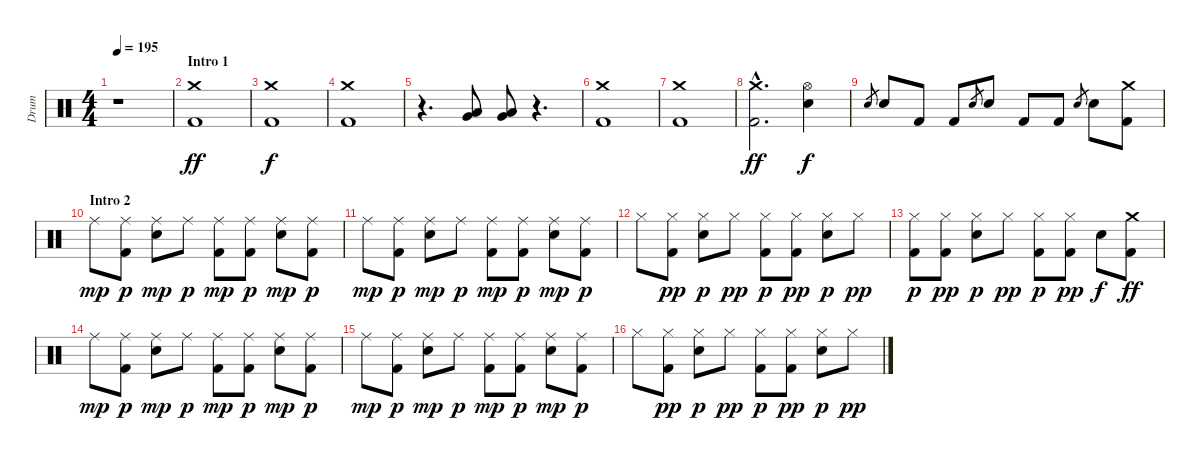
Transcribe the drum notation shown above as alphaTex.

\track ("Drum" "Drum") {instrument percussion}
\staff {score}
\articulation defaults
\ts (4 4)
\tempo 195
\clef neutral
\ks c
r.1{dy ff} |
\section ("" "Intro 1")
("Crash medium (hit)" "Kick (hit) 2").1 |
("Crash medium (hit)" "Kick (hit) 2").1{dy f} |
("Crash medium (hit)" "Kick (hit) 2").1 |
r.4{d} ("Very Low Tom (hit)" "Low Floor Tom (hit)").8 ("Very Low Tom (hit)" "Low Floor Tom (hit)").8 r.4{d} |
("Crash medium (hit)" "Kick (hit) 2").1 |
("Crash medium (hit)" "Kick (hit) 2").1 |
("Crash medium (hit)"{hac} "Kick (hit) 2"{hac}).2{d dy ff} ("Hi-Hat (open)" "Electric Snare (hit)").4{dy f} |
"Electric Snare (hit)".8{gr} "Electric Snare (hit)".8 "Kick (hit) 2".8 "Kick (hit) 2".8 "Electric Snare (hit)".8{gr} "Electric Snare (hit)".8 "Kick (hit) 2".8 "Kick (hit) 2".8 "Electric Snare (hit)".8{gr} "Electric Snare (hit)".8 ("Crash medium (hit)" "Kick (hit) 2").8 |
\section ("" "Intro 2")
"Ride (middle)".8{dy mp} ("Ride (middle)" "Kick (hit) 2").8{dy p} ("Ride (middle)" "Electric Snare (hit)").8{dy mp} "Ride (middle)".8{dy p} ("Ride (middle)" "Kick (hit) 2").8{dy mp} ("Ride (middle)" "Kick (hit) 2").8{dy p} ("Ride (middle)" "Electric Snare (hit)").8{dy mp} ("Ride (middle)" "Kick (hit) 2").8{dy p} |
"Ride (middle)".8{dy mp} ("Ride (middle)" "Kick (hit) 2").8{dy p} ("Ride (middle)" "Electric Snare (hit)").8{dy mp} "Ride (middle)".8{dy p} ("Ride (middle)" "Kick (hit) 2").8{dy mp} ("Ride (middle)" "Kick (hit) 2").8{dy p} ("Ride (middle)" "Electric Snare (hit)").8{dy mp} ("Ride (middle)" "Kick (hit) 2").8{dy p} |
"Hi-Hat (closed)".8 ("Hi-Hat (closed)" "Kick (hit) 2").8{dy pp} ("Hi-Hat (closed)" "Electric Snare (hit)").8{dy p} "Hi-Hat (closed)".8{dy pp} ("Hi-Hat (closed)" "Kick (hit) 2").8{dy p} ("Hi-Hat (closed)" "Kick (hit) 2").8{dy pp} ("Hi-Hat (closed)" "Electric Snare (hit)").8{dy p} "Hi-Hat (closed)".8{dy pp} |
("Hi-Hat (closed)" "Kick (hit) 2").8{dy p} ("Hi-Hat (closed)" "Kick (hit) 2").8{dy pp} ("Hi-Hat (closed)" "Electric Snare (hit)").8{dy p} "Hi-Hat (closed)".8{dy pp} ("Hi-Hat (closed)" "Kick (hit) 2").8{dy p} ("Hi-Hat (closed)" "Kick (hit) 2").8{dy pp} "Electric Snare (hit)".8{dy f} ("Crash medium (hit)" "Kick (hit) 2").8{dy ff} |
"Ride (middle)".8{dy mp} ("Ride (middle)" "Kick (hit) 2").8{dy p} ("Ride (middle)" "Electric Snare (hit)").8{dy mp} "Ride (middle)".8{dy p} ("Ride (middle)" "Kick (hit) 2").8{dy mp} ("Ride (middle)" "Kick (hit) 2").8{dy p} ("Ride (middle)" "Electric Snare (hit)").8{dy mp} ("Ride (middle)" "Kick (hit) 2").8{dy p} |
"Ride (middle)".8{dy mp} ("Ride (middle)" "Kick (hit) 2").8{dy p} ("Ride (middle)" "Electric Snare (hit)").8{dy mp} "Ride (middle)".8{dy p} ("Ride (middle)" "Kick (hit) 2").8{dy mp} ("Ride (middle)" "Kick (hit) 2").8{dy p} ("Ride (middle)" "Electric Snare (hit)").8{dy mp} ("Ride (middle)" "Kick (hit) 2").8{dy p} |
"Hi-Hat (closed)".8 ("Hi-Hat (closed)" "Kick (hit) 2").8{dy pp} ("Hi-Hat (closed)" "Electric Snare (hit)").8{dy p} "Hi-Hat (closed)".8{dy pp} ("Hi-Hat (closed)" "Kick (hit) 2").8{dy p} ("Hi-Hat (closed)" "Kick (hit) 2").8{dy pp} ("Hi-Hat (closed)" "Electric Snare (hit)").8{dy p} "Hi-Hat (closed)".8{dy pp}
